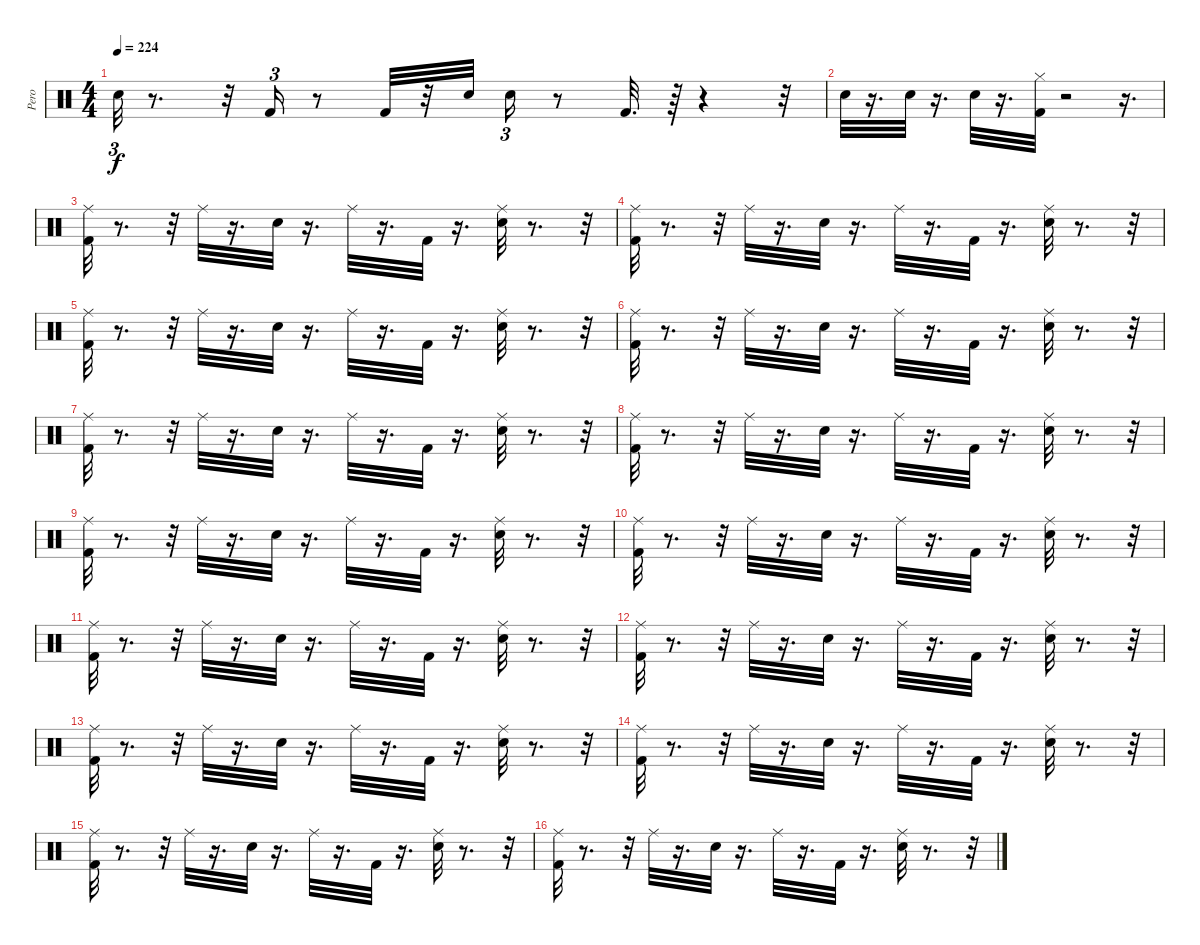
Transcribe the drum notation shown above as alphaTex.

\track ("Pero" "Pero") {instrument percussion}
\staff {score}
\articulation defaults
\ts (4 4)
\tempo 224
\clef neutral
\ks c "Snare (hit)"{t}.32{tu (3 2) dy f}
r.8{d} r.32 "Kick (hit) 2".16{tu (3 2)} r.8 "Kick (hit) 2".32 r.32 "Snare (hit) 2".32 "Snare (hit) 2".16{tu (3 2)} r.8 "Kick (hit) 2".32{d} r.64 r.4 r.32 |
"Snare (hit) 2".32 r.16{d} "Snare (hit) 2".32 r.16{d} "Snare (hit) 2".32 r.16{d} ("Hi-Hat (closed)" "Kick (hit) 2").32 r.2 r.16{d} |
("Ride (middle)" "Kick (hit) 2").32 r.8{d} r.32 "Ride (middle)".32 r.16{d} "Snare (hit) 2".32 r.16{d} "Ride (middle)".32 r.16{d} "Kick (hit) 2".32 r.16{d} ("Ride (middle)" "Snare (hit) 2").32 r.8{d} r.32 |
("Ride (middle)" "Kick (hit) 2").32 r.8{d} r.32 "Ride (middle)".32 r.16{d} "Snare (hit) 2".32 r.16{d} "Ride (middle)".32 r.16{d} "Kick (hit) 2".32 r.16{d} ("Ride (middle)" "Snare (hit) 2").32 r.8{d} r.32 |
("Ride (middle)" "Kick (hit) 2").32 r.8{d} r.32 "Ride (middle)".32 r.16{d} "Snare (hit) 2".32 r.16{d} "Ride (middle)".32 r.16{d} "Kick (hit) 2".32 r.16{d} ("Ride (middle)" "Snare (hit) 2").32 r.8{d} r.32 |
("Ride (middle)" "Kick (hit) 2").32 r.8{d} r.32 "Ride (middle)".32 r.16{d} "Snare (hit) 2".32 r.16{d} "Ride (middle)".32 r.16{d} "Kick (hit) 2".32 r.16{d} ("Ride (middle)" "Snare (hit) 2").32 r.8{d} r.32 |
("Ride (middle)" "Kick (hit) 2").32 r.8{d} r.32 "Ride (middle)".32 r.16{d} "Snare (hit) 2".32 r.16{d} "Ride (middle)".32 r.16{d} "Kick (hit) 2".32 r.16{d} ("Ride (middle)" "Snare (hit) 2").32 r.8{d} r.32 |
("Ride (middle)" "Kick (hit) 2").32 r.8{d} r.32 "Ride (middle)".32 r.16{d} "Snare (hit) 2".32 r.16{d} "Ride (middle)".32 r.16{d} "Kick (hit) 2".32 r.16{d} ("Ride (middle)" "Snare (hit) 2").32 r.8{d} r.32 |
("Ride (middle)" "Kick (hit) 2").32 r.8{d} r.32 "Ride (middle)".32 r.16{d} "Snare (hit) 2".32 r.16{d} "Ride (middle)".32 r.16{d} "Kick (hit) 2".32 r.16{d} ("Ride (middle)" "Snare (hit) 2").32 r.8{d} r.32 |
("Ride (middle)" "Kick (hit) 2").32 r.8{d} r.32 "Ride (middle)".32 r.16{d} "Snare (hit) 2".32 r.16{d} "Ride (middle)".32 r.16{d} "Kick (hit) 2".32 r.16{d} ("Ride (middle)" "Snare (hit) 2").32 r.8{d} r.32 |
("Ride (middle)" "Kick (hit) 2").32 r.8{d} r.32 "Ride (middle)".32 r.16{d} "Snare (hit) 2".32 r.16{d} "Ride (middle)".32 r.16{d} "Kick (hit) 2".32 r.16{d} ("Ride (middle)" "Snare (hit) 2").32 r.8{d} r.32 |
("Ride (middle)" "Kick (hit) 2").32 r.8{d} r.32 "Ride (middle)".32 r.16{d} "Snare (hit) 2".32 r.16{d} "Ride (middle)".32 r.16{d} "Kick (hit) 2".32 r.16{d} ("Ride (middle)" "Snare (hit) 2").32 r.8{d} r.32 |
("Ride (middle)" "Kick (hit) 2").32 r.8{d} r.32 "Ride (middle)".32 r.16{d} "Snare (hit) 2".32 r.16{d} "Ride (middle)".32 r.16{d} "Kick (hit) 2".32 r.16{d} ("Ride (middle)" "Snare (hit) 2").32 r.8{d} r.32 |
("Ride (middle)" "Kick (hit) 2").32 r.8{d} r.32 "Ride (middle)".32 r.16{d} "Snare (hit) 2".32 r.16{d} "Ride (middle)".32 r.16{d} "Kick (hit) 2".32 r.16{d} ("Ride (middle)" "Snare (hit) 2").32 r.8{d} r.32 |
("Ride (middle)" "Kick (hit) 2").32 r.8{d} r.32 "Ride (middle)".32 r.16{d} "Snare (hit) 2".32 r.16{d} "Ride (middle)".32 r.16{d} "Kick (hit) 2".32 r.16{d} ("Ride (middle)" "Snare (hit) 2").32 r.8{d} r.32 |
("Ride (middle)" "Kick (hit) 2").32 r.8{d} r.32 "Ride (middle)".32 r.16{d} "Snare (hit) 2".32 r.16{d} "Ride (middle)".32 r.16{d} "Kick (hit) 2".32 r.16{d} ("Ride (middle)" "Snare (hit) 2").32 r.8{d} r.32
